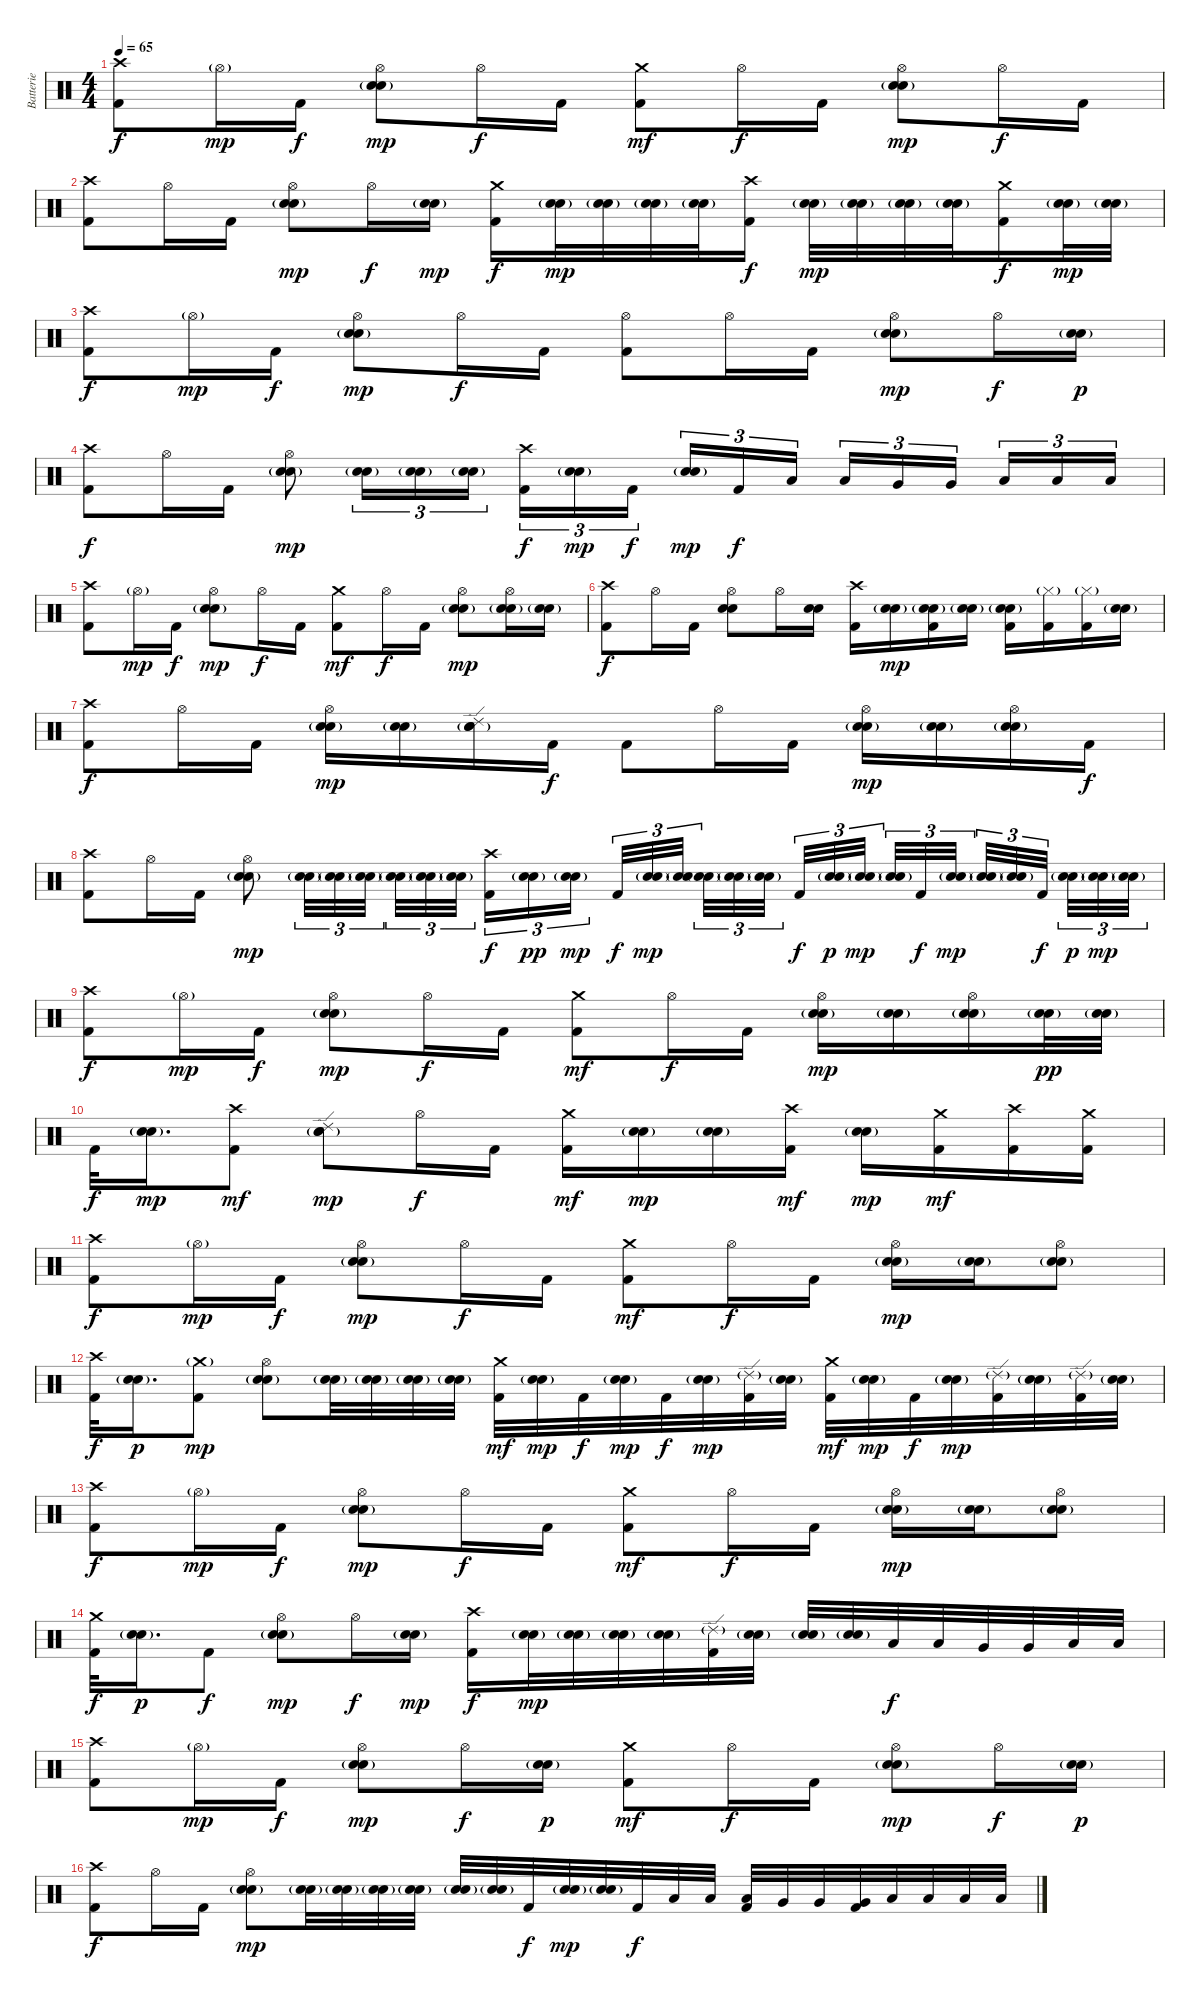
\track ("Batterie" "Batterie") {instrument percussion}
\staff {score}
\articulation defaults
\ts (4 4)
\tempo 65
\clef neutral
\ks c
("Crash high (hit)" "Kick (hit) 2").8{dy f} "Hi-Hat (open)"{g}.16{dy mp} "Kick (hit) 2".16{dy f} ("Hi-Hat (open)" "Electric Snare (hit)" "Snare (hit) 2"{g}).8{dy mp} "Hi-Hat (open)".16{dy f} "Kick (hit) 2".16 ("Crash medium (hit)" "Kick (hit) 2").8{dy mf} "Hi-Hat (open)".16{dy f} "Kick (hit) 2".16 ("Hi-Hat (open)" "Electric Snare (hit)" "Snare (hit) 2"{g}).8{dy mp} "Hi-Hat (open)".16{dy f} "Kick (hit) 2".16 |
("Crash high (hit)" "Kick (hit) 2").8 "Hi-Hat (open)".16 "Kick (hit) 2".16 ("Hi-Hat (open)" "Electric Snare (hit)" "Snare (hit) 2"{g}).8{dy mp} "Hi-Hat (open)".16{dy f} ("Electric Snare (hit)" "Snare (hit) 2"{g}).16{dy mp} ("Crash medium (hit)" "Kick (hit) 2").16{dy f} ("Electric Snare (hit)" "Snare (hit) 2"{g}).32{dy mp} ("Electric Snare (hit)" "Snare (hit) 2"{g}).32 ("Electric Snare (hit)" "Snare (hit) 2"{g}).32 ("Electric Snare (hit)" "Snare (hit) 2"{g}).32 ("Crash high (hit)" "Kick (hit) 2").16{dy f} ("Electric Snare (hit)" "Snare (hit) 2"{g}).32{dy mp} ("Electric Snare (hit)" "Snare (hit) 2"{g}).32 ("Electric Snare (hit)" "Snare (hit) 2"{g}).32 ("Electric Snare (hit)" "Snare (hit) 2"{g}).32 ("Crash medium (hit)" "Kick (hit) 2").16{dy f} ("Electric Snare (hit)" "Snare (hit) 2"{g}).32{dy mp} ("Electric Snare (hit)" "Snare (hit) 2"{g}).32 |
("Crash high (hit)" "Kick (hit) 2").8{dy f} "Hi-Hat (open)"{g}.16{dy mp} "Kick (hit) 2".16{dy f} ("Hi-Hat (open)" "Electric Snare (hit)" "Snare (hit) 2"{g}).8{dy mp} "Hi-Hat (open)".16{dy f} "Kick (hit) 2".16 ("Hi-Hat (open)" "Kick (hit) 2").8 "Hi-Hat (open)".16 "Kick (hit) 2".16 ("Hi-Hat (open)" "Electric Snare (hit)" "Snare (hit) 2"{g}).8{dy mp} "Hi-Hat (open)".16{dy f} ("Electric Snare (hit)" "Snare (hit) 2"{g}).16{dy p} |
("Crash high (hit)" "Kick (hit) 2").8{dy f} "Hi-Hat (open)".16 "Kick (hit) 2".16 ("Hi-Hat (open)" "Electric Snare (hit)" "Snare (hit) 2"{g}).8{dy mp} ("Electric Snare (hit)" "Snare (hit) 2"{g}).16{tu (3 2)} ("Electric Snare (hit)" "Snare (hit) 2"{g}).16{tu (3 2)} ("Electric Snare (hit)" "Snare (hit) 2"{g}).16{tu (3 2)} ("Crash high (hit)" "Kick (hit) 2").16{tu (3 2) dy f} ("Electric Snare (hit)" "Snare (hit) 2"{g}).16{tu (3 2) dy mp} "Kick (hit) 2".16{tu (3 2) dy f} ("Electric Snare (hit)" "Snare (hit) 2"{g}).16{tu (3 2) dy mp} "Kick (hit) 2".16{tu (3 2) dy f} "Low Tom (hit)".16{tu (3 2)} "Low Tom (hit)".16{tu (3 2)} "Very Low Tom (hit)".16{tu (3 2)} "Very Low Tom (hit)".16{tu (3 2)} "Low Floor Tom (hit)".16{tu (3 2)} "Low Floor Tom (hit)".16{tu (3 2)} "Low Floor Tom (hit)".16{tu (3 2)} |
("Crash high (hit)" "Kick (hit) 2").8 "Hi-Hat (open)"{g}.16{dy mp} "Kick (hit) 2".16{dy f} ("Hi-Hat (open)" "Electric Snare (hit)" "Snare (hit) 2"{g}).8{dy mp} "Hi-Hat (open)".16{dy f} "Kick (hit) 2".16 ("Crash medium (hit)" "Kick (hit) 2").8{dy mf} "Hi-Hat (open)".16{dy f} "Kick (hit) 2".16 ("Hi-Hat (open)" "Electric Snare (hit)" "Snare (hit) 2"{g}).8{dy mp} ("Hi-Hat (open)" "Electric Snare (hit)" "Snare (hit) 2"{g}).16 ("Electric Snare (hit)" "Snare (hit) 2"{g}).16 |
("Crash high (hit)" "Kick (hit) 2").8{dy f} "Hi-Hat (open)".16 "Kick (hit) 2".16 ("Hi-Hat (open)" "Electric Snare (hit)" "Snare (hit) 2").8 "Hi-Hat (open)".16 ("Electric Snare (hit)" "Snare (hit) 2").16 ("Crash high (hit)" "Kick (hit) 2").16 ("Electric Snare (hit)" "Snare (hit) 2"{g}).16{dy mp} ("Electric Snare (hit)" "Snare (hit) 2"{g} "Kick (hit) 2").16 ("Electric Snare (hit)" "Snare (hit) 2"{g}).16 ("Electric Snare (hit)" "Snare (hit) 2"{g} "Kick (hit) 2").16 ("Hi-Hat (closed)"{g} "Kick (hit) 2").16 ("Hi-Hat (closed)"{g} "Kick (hit) 2").16 ("Electric Snare (hit)" "Snare (hit) 2"{g}).16 |
("Crash high (hit)" "Kick (hit) 2").8{dy f} "Hi-Hat (open)".16 "Kick (hit) 2".16 ("Hi-Hat (open)" "Electric Snare (hit)" "Snare (hit) 2"{g}).16{dy mp} ("Electric Snare (hit)" "Snare (hit) 2"{g}).16 ("Ride (edge) 2" "Electric Snare (hit)" "Snare (hit) 2"{g}).16 "Kick (hit) 2".16{dy f} "Kick (hit) 2".8 "Hi-Hat (open)".16 "Kick (hit) 2".16 ("Hi-Hat (open)" "Electric Snare (hit)" "Snare (hit) 2"{g}).16{dy mp} ("Electric Snare (hit)" "Snare (hit) 2"{g}).16 ("Hi-Hat (open)" "Electric Snare (hit)" "Snare (hit) 2"{g}).16 "Kick (hit) 2".16{dy f} |
("Crash high (hit)" "Kick (hit) 2").8 "Hi-Hat (open)".16 "Kick (hit) 2".16 ("Hi-Hat (open)" "Electric Snare (hit)" "Snare (hit) 2"{g}).8{dy mp} ("Electric Snare (hit)" "Snare (hit) 2"{g}).32{tu (3 2)} ("Electric Snare (hit)" "Snare (hit) 2"{g}).32{tu (3 2)} ("Electric Snare (hit)" "Snare (hit) 2"{g}).32{tu (3 2)} ("Electric Snare (hit)" "Snare (hit) 2"{g}).32{tu (3 2)} ("Electric Snare (hit)" "Snare (hit) 2"{g}).32{tu (3 2)} ("Electric Snare (hit)" "Snare (hit) 2"{g}).32{tu (3 2)} ("Crash high (hit)" "Kick (hit) 2").16{tu (3 2) dy f} ("Electric Snare (hit)"{g} "Snare (hit) 2"{g}).16{tu (3 2) dy pp} ("Electric Snare (hit)" "Snare (hit) 2"{g}).16{tu (3 2) dy mp} "Kick (hit) 2".32{tu (3 2) dy f} ("Electric Snare (hit)" "Snare (hit) 2"{g}).32{tu (3 2) dy mp} ("Electric Snare (hit)" "Snare (hit) 2"{g}).32{tu (3 2)} ("Electric Snare (hit)" "Snare (hit) 2"{g}).32{tu (3 2)} ("Electric Snare (hit)" "Snare (hit) 2"{g}).32{tu (3 2)} ("Electric Snare (hit)" "Snare (hit) 2"{g}).32{tu (3 2)} "Kick (hit) 2".32{tu (3 2) dy f} ("Electric Snare (hit)" "Snare (hit) 2"{g}).32{tu (3 2) dy p} ("Electric Snare (hit)" "Snare (hit) 2"{g}).32{tu (3 2) dy mp} ("Electric Snare (hit)" "Snare (hit) 2"{g}).32{tu (3 2)} "Kick (hit) 2".32{tu (3 2) dy f} ("Electric Snare (hit)" "Snare (hit) 2"{g}).32{tu (3 2) dy mp} ("Electric Snare (hit)" "Snare (hit) 2"{g}).32{tu (3 2)} ("Electric Snare (hit)" "Snare (hit) 2"{g}).32{tu (3 2)} "Kick (hit) 2".32{tu (3 2) dy f} ("Electric Snare (hit)" "Snare (hit) 2"{g}).32{tu (3 2) dy p} ("Electric Snare (hit)" "Snare (hit) 2"{g}).32{tu (3 2) dy mp} ("Electric Snare (hit)" "Snare (hit) 2"{g}).32{tu (3 2)} |
("Crash high (hit)" "Kick (hit) 2").8{dy f} "Hi-Hat (open)"{g}.16{dy mp} "Kick (hit) 2".16{dy f} ("Hi-Hat (open)" "Electric Snare (hit)" "Snare (hit) 2"{g}).8{dy mp} "Hi-Hat (open)".16{dy f} "Kick (hit) 2".16 ("Crash medium (hit)" "Kick (hit) 2").8{dy mf} "Hi-Hat (open)".16{dy f} "Kick (hit) 2".16 ("Hi-Hat (open)" "Electric Snare (hit)" "Snare (hit) 2"{g}).16{dy mp} ("Electric Snare (hit)" "Snare (hit) 2"{g}).16 ("Hi-Hat (open)" "Electric Snare (hit)" "Snare (hit) 2"{g}).16 ("Electric Snare (hit)"{g} "Snare (hit) 2"{g}).32{dy pp} ("Electric Snare (hit)"{g} "Snare (hit) 2"{g}).32 |
"Kick (hit) 2".32{dy f} ("Electric Snare (hit)" "Snare (hit) 2"{g}).16{d dy mp} ("Crash high (hit)" "Kick (hit) 2").8{dy mf} ("Ride (edge) 2" "Electric Snare (hit)" "Snare (hit) 2"{g}).8{dy mp} "Hi-Hat (open)".16{dy f} "Kick (hit) 2".16 ("Crash medium (hit)" "Kick (hit) 2").16{dy mf} ("Electric Snare (hit)" "Snare (hit) 2"{g}).16{dy mp} ("Electric Snare (hit)" "Snare (hit) 2"{g}).16 ("Crash high (hit)" "Kick (hit) 2").16{dy mf} ("Electric Snare (hit)" "Snare (hit) 2"{g}).16{dy mp} ("Crash medium (hit)" "Kick (hit) 2").16{dy mf} ("Crash high (hit)" "Kick (hit) 2").16 ("Crash medium (hit)" "Kick (hit) 2").16 |
("Crash high (hit)" "Kick (hit) 2").8{dy f} "Hi-Hat (open)"{g}.16{dy mp} "Kick (hit) 2".16{dy f} ("Hi-Hat (open)" "Electric Snare (hit)" "Snare (hit) 2"{g}).8{dy mp} "Hi-Hat (open)".16{dy f} "Kick (hit) 2".16 ("Crash medium (hit)" "Kick (hit) 2").8{dy mf} "Hi-Hat (open)".16{dy f} "Kick (hit) 2".16 ("Hi-Hat (open)" "Electric Snare (hit)" "Snare (hit) 2"{g}).16{dy mp} ("Electric Snare (hit)" "Snare (hit) 2"{g}).16 ("Hi-Hat (open)" "Electric Snare (hit)" "Snare (hit) 2"{g}).8 |
("Crash high (hit)" "Kick (hit) 2").32{dy f} ("Electric Snare (hit)" "Snare (hit) 2"{g}).16{d dy p} ("Crash medium (hit)"{g} "Kick (hit) 2").8{dy mp} ("Hi-Hat (open)" "Electric Snare (hit)" "Snare (hit) 2"{g}).8 ("Electric Snare (hit)" "Snare (hit) 2"{g}).32 ("Electric Snare (hit)" "Snare (hit) 2"{g}).32 ("Electric Snare (hit)" "Snare (hit) 2"{g}).32 ("Electric Snare (hit)" "Snare (hit) 2"{g}).32 ("Crash medium (hit)" "Kick (hit) 2").32{dy mf} ("Electric Snare (hit)" "Snare (hit) 2"{g}).32{dy mp} "Kick (hit) 2".32{dy f} ("Electric Snare (hit)" "Snare (hit) 2"{g}).32{dy mp} "Kick (hit) 2".32{dy f} ("Electric Snare (hit)" "Snare (hit) 2"{g}).32{dy mp} ("Ride (edge) 2"{g} "Kick (hit) 2").32 ("Electric Snare (hit)" "Snare (hit) 2"{g}).32 ("Crash medium (hit)" "Kick (hit) 2").32{dy mf} ("Electric Snare (hit)" "Snare (hit) 2"{g}).32{dy mp} "Kick (hit) 2".32{dy f} ("Electric Snare (hit)" "Snare (hit) 2"{g}).32{dy mp} ("Ride (edge) 2"{g} "Kick (hit) 2").32 ("Electric Snare (hit)" "Snare (hit) 2"{g}).32 ("Ride (edge) 2"{g} "Kick (hit) 2").32 ("Electric Snare (hit)" "Snare (hit) 2"{g}).32 |
("Crash high (hit)" "Kick (hit) 2").8{dy f} "Hi-Hat (open)"{g}.16{dy mp} "Kick (hit) 2".16{dy f} ("Hi-Hat (open)" "Electric Snare (hit)" "Snare (hit) 2"{g}).8{dy mp} "Hi-Hat (open)".16{dy f} "Kick (hit) 2".16 ("Crash medium (hit)" "Kick (hit) 2").8{dy mf} "Hi-Hat (open)".16{dy f} "Kick (hit) 2".16 ("Hi-Hat (open)" "Electric Snare (hit)" "Snare (hit) 2"{g}).16{dy mp} ("Electric Snare (hit)" "Snare (hit) 2"{g}).16 ("Hi-Hat (open)" "Electric Snare (hit)" "Snare (hit) 2"{g}).8 |
("Crash medium (hit)" "Kick (hit) 2").32{dy f} ("Electric Snare (hit)" "Snare (hit) 2"{g}).16{d dy p} "Kick (hit) 2".8{dy f} ("Hi-Hat (open)" "Electric Snare (hit)" "Snare (hit) 2"{g}).8{dy mp} "Hi-Hat (open)".16{dy f} ("Electric Snare (hit)" "Snare (hit) 2"{g}).16{dy mp} ("Crash high (hit)" "Kick (hit) 2").16{dy f} ("Electric Snare (hit)" "Snare (hit) 2"{g}).32{dy mp} ("Electric Snare (hit)" "Snare (hit) 2"{g}).32 ("Electric Snare (hit)" "Snare (hit) 2"{g}).32 ("Electric Snare (hit)" "Snare (hit) 2"{g}).32 ("Ride (edge) 2"{g} "Kick (hit) 2").32 ("Electric Snare (hit)" "Snare (hit) 2"{g}).32 ("Electric Snare (hit)" "Snare (hit) 2"{g}).32 ("Electric Snare (hit)" "Snare (hit) 2"{g}).32 "Low Tom (hit)".32{dy f} "Low Tom (hit)".32 "Very Low Tom (hit)".32 "Very Low Tom (hit)".32 "Low Floor Tom (hit)".32 "Low Floor Tom (hit)".32 |
("Crash high (hit)" "Kick (hit) 2").8 "Hi-Hat (open)"{g}.16{dy mp} "Kick (hit) 2".16{dy f} ("Hi-Hat (open)" "Electric Snare (hit)" "Snare (hit) 2"{g}).8{dy mp} "Hi-Hat (open)".16{dy f} ("Electric Snare (hit)" "Snare (hit) 2"{g}).16{dy p} ("Crash medium (hit)" "Kick (hit) 2").8{dy mf} "Hi-Hat (open)".16{dy f} "Kick (hit) 2".16 ("Hi-Hat (open)" "Electric Snare (hit)" "Snare (hit) 2"{g}).8{dy mp} "Hi-Hat (open)".16{dy f} ("Electric Snare (hit)" "Snare (hit) 2"{g}).16{dy p} |
("Crash high (hit)" "Kick (hit) 2").8{dy f} "Hi-Hat (open)".16 "Kick (hit) 2".16 ("Hi-Hat (open)" "Electric Snare (hit)" "Snare (hit) 2"{g}).8{dy mp} ("Electric Snare (hit)" "Snare (hit) 2"{g}).32 ("Electric Snare (hit)" "Snare (hit) 2"{g}).32 ("Electric Snare (hit)" "Snare (hit) 2"{g}).32 ("Electric Snare (hit)" "Snare (hit) 2"{g}).32 ("Electric Snare (hit)" "Snare (hit) 2"{g}).32 ("Electric Snare (hit)" "Snare (hit) 2"{g}).32 "Kick (hit) 2".32{dy f} ("Electric Snare (hit)" "Snare (hit) 2"{g}).32{dy mp} ("Electric Snare (hit)" "Snare (hit) 2"{g}).32 "Kick (hit) 2".32{dy f} "Low Tom (hit)".32 "Low Tom (hit)".32 ("Low Tom (hit)" "Kick (hit) 2").32 "Very Low Tom (hit)".32 "Very Low Tom (hit)".32 ("Very Low Tom (hit)" "Kick (hit) 2").32 "Low Floor Tom (hit)".32 "Low Floor Tom (hit)".32 "Low Floor Tom (hit)".32 "Low Floor Tom (hit)".32
